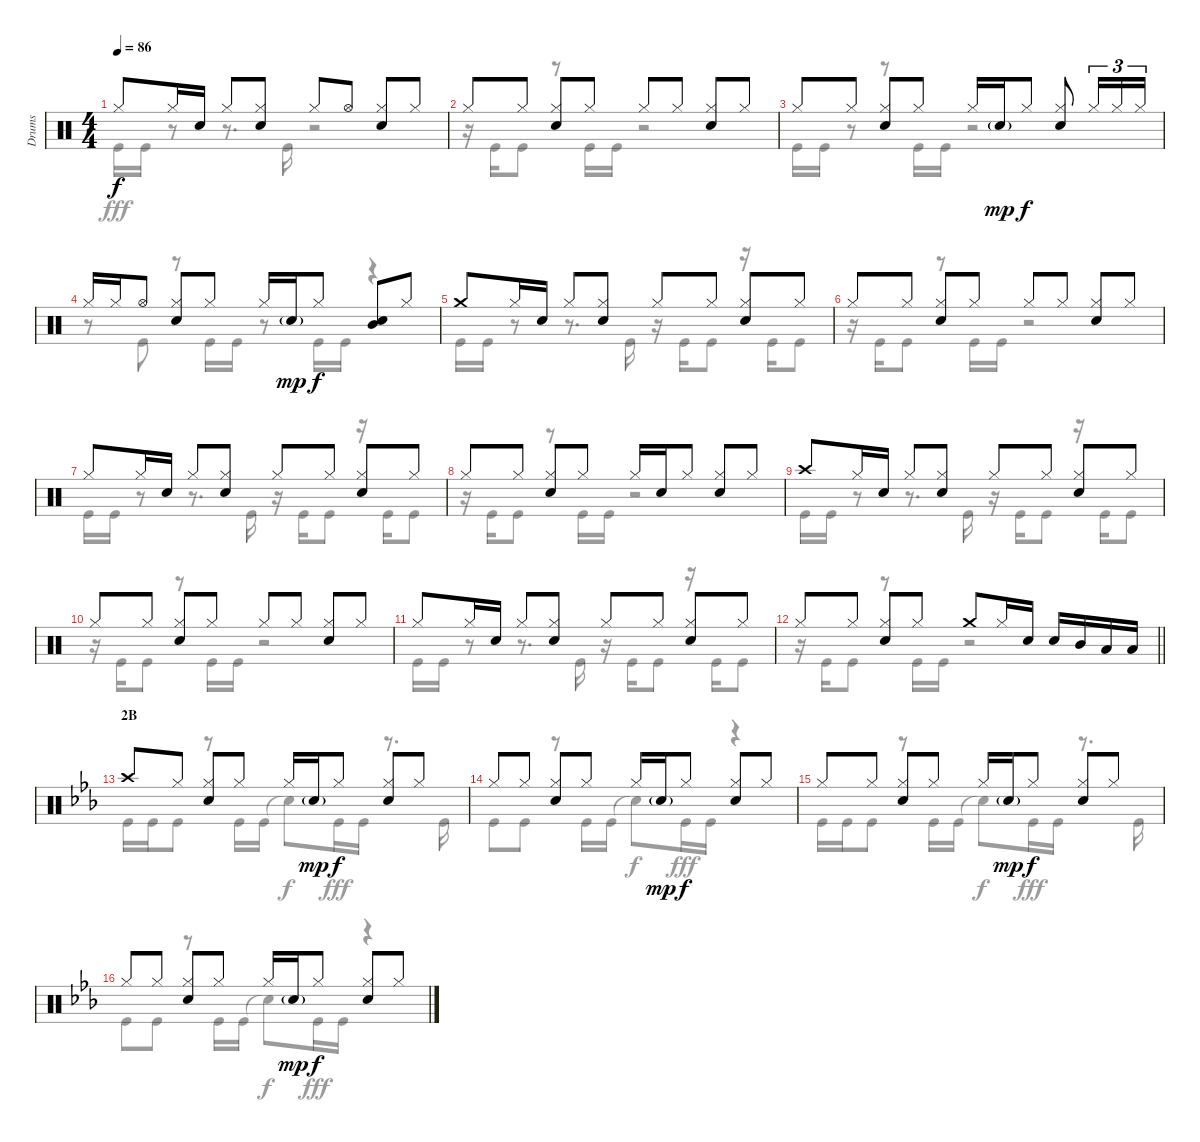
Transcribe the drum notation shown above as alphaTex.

\track ("Drums" "Drums") {instrument percussion}
\staff {score}
\articulation defaults
\voice
\ts (4 4)
\tempo 86
\clef neutral
\ks c "Hi-Hat (closed)".8{dy f} "Hi-Hat (closed)".16 "Snare (hit) 2".16 "Hi-Hat (closed)".8
("Hi-Hat (closed)" "Snare (hit) 2").8 "Hi-Hat (closed)".8 "Hi-Hat (open)".8 ("Hi-Hat (closed)" "Snare (hit) 2").8 "Hi-Hat (closed)".8 |
"Hi-Hat (closed)".8 "Hi-Hat (closed)".8 ("Hi-Hat (closed)" "Snare (hit) 2").8 "Hi-Hat (closed)".8 "Hi-Hat (closed)".8 "Hi-Hat (closed)".8 ("Hi-Hat (closed)" "Snare (hit) 2").8 "Hi-Hat (closed)".8 |
"Hi-Hat (closed)".8 "Hi-Hat (closed)".8 ("Hi-Hat (closed)" "Snare (hit) 2").8 "Hi-Hat (closed)".8 "Hi-Hat (closed)".16 "Snare (hit) 2"{g}.16{dy mp} "Hi-Hat (closed)".8{dy f} ("Hi-Hat (closed)" "Snare (hit) 2").8 "Hi-Hat (closed)".16{tu (3 2)} "Hi-Hat (closed)".16{tu (3 2)} "Hi-Hat (closed)".16{tu (3 2)} |
"Hi-Hat (closed)".16 "Hi-Hat (closed)".16 "Hi-Hat (open)".8 ("Hi-Hat (closed)" "Snare (hit) 2").8 "Hi-Hat (closed)".8 "Hi-Hat (closed)".16 "Snare (hit) 2"{g}.16{dy mp} "Hi-Hat (closed)".8{dy f} ("Mid Tom (hit)" "Snare (hit) 2").8 "Hi-Hat (closed)".8 |
"Crash medium (hit)".8 "Hi-Hat (closed)".16 "Snare (hit) 2".16 "Hi-Hat (closed)".8 ("Hi-Hat (closed)" "Snare (hit) 2").8 "Hi-Hat (closed)".8 "Hi-Hat (closed)".8 ("Hi-Hat (closed)" "Snare (hit) 2").8 "Hi-Hat (closed)".8 |
"Hi-Hat (closed)".8 "Hi-Hat (closed)".8 ("Hi-Hat (closed)" "Snare (hit) 2").8 "Hi-Hat (closed)".8 "Hi-Hat (closed)".8 "Hi-Hat (closed)".8 ("Hi-Hat (closed)" "Snare (hit) 2").8 "Hi-Hat (closed)".8 |
"Hi-Hat (closed)".8 "Hi-Hat (closed)".16 "Snare (hit) 2".16 "Hi-Hat (closed)".8 ("Hi-Hat (closed)" "Snare (hit) 2").8 "Hi-Hat (closed)".8 "Hi-Hat (closed)".8 ("Hi-Hat (closed)" "Snare (hit) 2").8 "Hi-Hat (closed)".8 |
"Hi-Hat (closed)".8 "Hi-Hat (closed)".8 ("Hi-Hat (closed)" "Snare (hit) 2").8 "Hi-Hat (closed)".8 "Hi-Hat (closed)".16 "Snare (hit) 2".16 "Hi-Hat (closed)".8 ("Hi-Hat (closed)" "Snare (hit) 2").8 "Hi-Hat (closed)".8 |
"Crash high (hit)".8 "Hi-Hat (closed)".16 "Snare (hit) 2".16 "Hi-Hat (closed)".8 ("Hi-Hat (closed)" "Snare (hit) 2").8 "Hi-Hat (closed)".8 "Hi-Hat (closed)".8 ("Hi-Hat (closed)" "Snare (hit) 2").8 "Hi-Hat (closed)".8 |
"Hi-Hat (closed)".8 "Hi-Hat (closed)".8 ("Hi-Hat (closed)" "Snare (hit) 2").8 "Hi-Hat (closed)".8 "Hi-Hat (closed)".8 "Hi-Hat (closed)".8 ("Hi-Hat (closed)" "Snare (hit) 2").8 "Hi-Hat (closed)".8 |
"Hi-Hat (closed)".8 "Hi-Hat (closed)".16 "Snare (hit) 2".16 "Hi-Hat (closed)".8 ("Hi-Hat (closed)" "Snare (hit) 2").8 "Hi-Hat (closed)".8 "Hi-Hat (closed)".8 ("Hi-Hat (closed)" "Snare (hit) 2").8 "Hi-Hat (closed)".8 |
\barLineRight lightlight "Hi-Hat (closed)".8 "Hi-Hat (closed)".8
("Hi-Hat (closed)" "Snare (hit) 2").8 "Hi-Hat (closed)".8 "Crash medium (hit)".8 "Hi-Hat (closed)".16 "Snare (hit) 2".16 "Snare (hit) 2".16 "Mid Tom (hit)".16 "Low Tom (hit)".16 "Low Tom (hit)".16 |
\section ("" "2B")
\ks eb "Crash high (hit)".8 "Hi-Hat (closed)".8
("Hi-Hat (closed)" "Snare (hit) 2").8 "Hi-Hat (closed)".8 "Hi-Hat (closed)".16 "Snare (hit) 2"{g}.16{dy mp} "Hi-Hat (closed)".8{dy f} ("Hi-Hat (closed)" "Snare (hit) 2").8 "Hi-Hat (closed)".8 |
"Hi-Hat (closed)".8 "Hi-Hat (closed)".8 ("Hi-Hat (closed)" "Snare (hit) 2").8 "Hi-Hat (closed)".8 "Hi-Hat (closed)".16 "Snare (hit) 2"{g}.16{dy mp} "Hi-Hat (closed)".8{dy f} ("Hi-Hat (closed)" "Snare (hit) 2").8 "Hi-Hat (closed)".8 |
"Hi-Hat (closed)".8 "Hi-Hat (closed)".8 ("Hi-Hat (closed)" "Snare (hit) 2").8 "Hi-Hat (closed)".8 "Hi-Hat (closed)".16 "Snare (hit) 2"{g}.16{dy mp} "Hi-Hat (closed)".8{dy f} ("Hi-Hat (closed)" "Snare (hit) 2").8 "Hi-Hat (closed)".8 |
"Hi-Hat (closed)".8 "Hi-Hat (closed)".8 ("Hi-Hat (closed)" "Snare (hit) 2").8 "Hi-Hat (closed)".8 "Hi-Hat (closed)".16 "Snare (hit) 2"{g}.16{dy mp} "Hi-Hat (closed)".8{dy f} ("Hi-Hat (closed)" "Snare (hit) 2").8 "Hi-Hat (closed)".8
\voice
\clef neutral
\ottava regular
\simile none
\ks c "Kick (hit)".16{dy fff} "Kick (hit)".16
r.8 r.8{d} "Kick (hit)".16 r.2 |
r.16 "Kick (hit)".16 "Kick (hit)".8 r.8 "Kick (hit)".16 "Kick (hit)".16 r.2 |
"Kick (hit)".16 "Kick (hit)".16 r.8 r.8 "Kick (hit)".16 "Kick (hit)".16 r.2 |
r.8 "Kick (hit)".8 r.8 "Kick (hit)".16 "Kick (hit)".16 r.8 "Kick (hit)".16 "Kick (hit)".16 r.4 |
"Kick (hit)".16 "Kick (hit)".16 r.8 r.8{d} "Kick (hit)".16 r.16 "Kick (hit)".16 "Kick (hit)".8 r.16 "Kick (hit)".16 "Kick (hit)".8 |
r.16 "Kick (hit)".16 "Kick (hit)".8 r.8 "Kick (hit)".16 "Kick (hit)".16 r.2 |
"Kick (hit)".16 "Kick (hit)".16 r.8 r.8{d} "Kick (hit)".16 r.16 "Kick (hit)".16 "Kick (hit)".8 r.16 "Kick (hit)".16 "Kick (hit)".8 |
r.16 "Kick (hit)".16 "Kick (hit)".8 r.8 "Kick (hit)".16 "Kick (hit)".16 r.2 |
"Kick (hit)".16 "Kick (hit)".16 r.8 r.8{d} "Kick (hit)".16 r.16 "Kick (hit)".16 "Kick (hit)".8 r.16 "Kick (hit)".16 "Kick (hit)".8 |
r.16 "Kick (hit)".16 "Kick (hit)".8 r.8 "Kick (hit)".16 "Kick (hit)".16 r.2 |
"Kick (hit)".16 "Kick (hit)".16 r.8 r.8{d} "Kick (hit)".16 r.16 "Kick (hit)".16 "Kick (hit)".8 r.16 "Kick (hit)".16 "Kick (hit)".8 |
\barLineRight lightlight
r.16 "Kick (hit)".16 "Kick (hit)".8 r.8 "Kick (hit)".16 "Kick (hit)".16 r.2 |
\ks eb "Kick (hit)".16 "Kick (hit)".16 "Kick (hit)".8
r.8 "Kick (hit)".16 "Kick (hit)".16 "Snare (hit)"{t}.8{dy f} "Kick (hit)".16{dy fff} "Kick (hit)".16 r.8{d} "Kick (hit)".16 |
"Kick (hit)".8 "Kick (hit)".8 r.8 "Kick (hit)".16 "Kick (hit)".16 "Snare (hit)"{t}.8{dy f} "Kick (hit)".16{dy fff} "Kick (hit)".16 r.4 |
"Kick (hit)".16 "Kick (hit)".16 "Kick (hit)".8 r.8 "Kick (hit)".16 "Kick (hit)".16 "Snare (hit)"{t}.8{dy f} "Kick (hit)".16{dy fff} "Kick (hit)".16 r.8{d} "Kick (hit)".16 |
"Kick (hit)".8 "Kick (hit)".8 r.8 "Kick (hit)".16 "Kick (hit)".16 "Snare (hit)"{t}.8{dy f} "Kick (hit)".16{dy fff} "Kick (hit)".16 r.4
